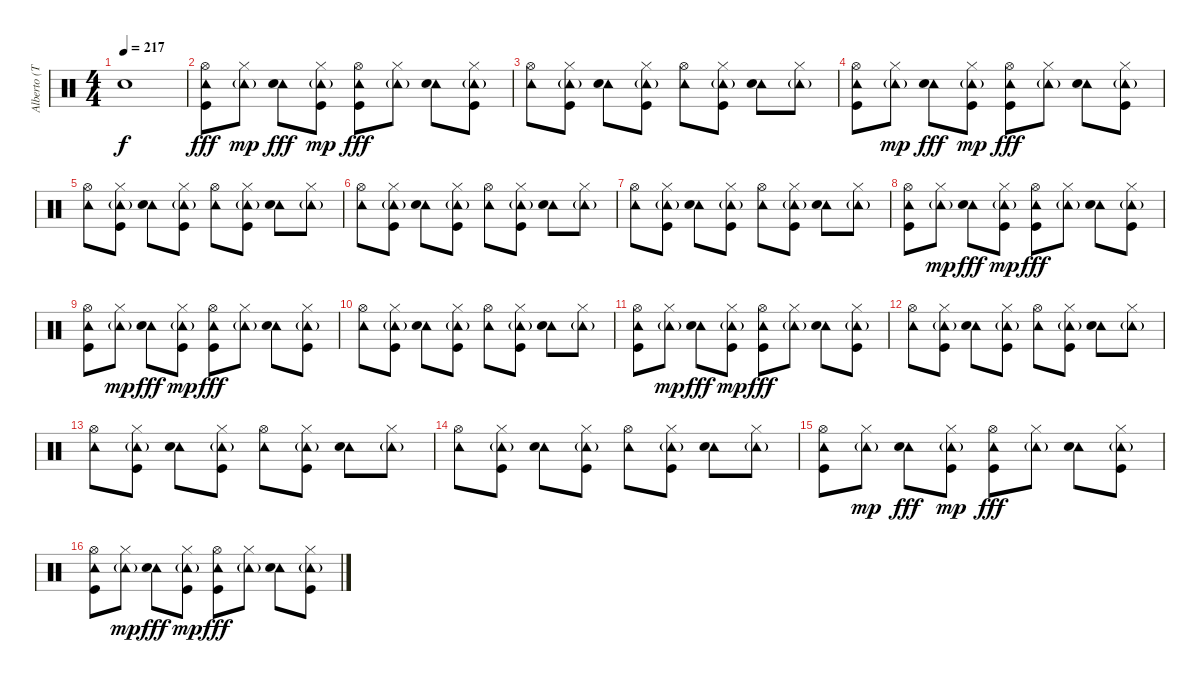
\track ("Alberto (Toshi)" "Alberto (T") {instrument percussion}
\staff {score}
\articulation defaults
\ts (4 4)
\tempo 217
\clef neutral
\ks c "Snare (hit)"{t}.1{dy f}
|
("Tambourine (hit)" "Hi-Hat (open)" "Kick (hit)").8{dy fff} ("Tambourine (hit)"{g} "Hi-Hat (closed)").8{dy mp} ("Tambourine (hit)" "Electric Snare (hit)").8{dy fff} ("Tambourine (hit)"{g} "Hi-Hat (closed)" "Kick (hit)").8{dy mp} ("Tambourine (hit)" "Hi-Hat (open)" "Kick (hit)").8{dy fff} ("Tambourine (hit)"{g} "Hi-Hat (closed)").8 ("Tambourine (hit)" "Electric Snare (hit)").8 ("Tambourine (hit)"{g} "Hi-Hat (closed)" "Kick (hit)").8 |
("Tambourine (hit)" "Hi-Hat (open)").8 ("Tambourine (hit)"{g} "Hi-Hat (closed)" "Kick (hit)").8 ("Tambourine (hit)" "Electric Snare (hit)").8 ("Tambourine (hit)"{g} "Hi-Hat (closed)" "Kick (hit)").8 ("Tambourine (hit)" "Hi-Hat (open)").8 ("Tambourine (hit)"{g} "Hi-Hat (closed)" "Kick (hit)").8 ("Tambourine (hit)" "Electric Snare (hit)").8 ("Tambourine (hit)"{g} "Hi-Hat (closed)").8 |
("Tambourine (hit)" "Hi-Hat (open)" "Kick (hit)").8 ("Tambourine (hit)"{g} "Hi-Hat (closed)").8{dy mp} ("Tambourine (hit)" "Electric Snare (hit)").8{dy fff} ("Tambourine (hit)"{g} "Hi-Hat (closed)" "Kick (hit)").8{dy mp} ("Tambourine (hit)" "Hi-Hat (open)" "Kick (hit)").8{dy fff} ("Tambourine (hit)"{g} "Hi-Hat (closed)").8 ("Tambourine (hit)" "Electric Snare (hit)").8 ("Tambourine (hit)"{g} "Hi-Hat (closed)" "Kick (hit)").8 |
("Tambourine (hit)" "Hi-Hat (open)").8 ("Tambourine (hit)"{g} "Hi-Hat (closed)" "Kick (hit)").8 ("Tambourine (hit)" "Electric Snare (hit)").8 ("Tambourine (hit)"{g} "Hi-Hat (closed)" "Kick (hit)").8 ("Tambourine (hit)" "Hi-Hat (open)").8 ("Tambourine (hit)"{g} "Hi-Hat (closed)" "Kick (hit)").8 ("Tambourine (hit)" "Electric Snare (hit)").8 ("Tambourine (hit)"{g} "Hi-Hat (closed)").8 |
("Tambourine (hit)" "Hi-Hat (open)").8 ("Tambourine (hit)"{g} "Hi-Hat (closed)" "Kick (hit)").8 ("Tambourine (hit)" "Electric Snare (hit)").8 ("Tambourine (hit)"{g} "Hi-Hat (closed)" "Kick (hit)").8 ("Tambourine (hit)" "Hi-Hat (open)").8 ("Tambourine (hit)"{g} "Hi-Hat (closed)" "Kick (hit)").8 ("Tambourine (hit)" "Electric Snare (hit)").8 ("Tambourine (hit)"{g} "Hi-Hat (closed)").8 |
("Tambourine (hit)" "Hi-Hat (open)").8 ("Tambourine (hit)"{g} "Hi-Hat (closed)" "Kick (hit)").8 ("Tambourine (hit)" "Electric Snare (hit)").8 ("Tambourine (hit)"{g} "Hi-Hat (closed)" "Kick (hit)").8 ("Tambourine (hit)" "Hi-Hat (open)").8 ("Tambourine (hit)"{g} "Hi-Hat (closed)" "Kick (hit)").8 ("Tambourine (hit)" "Electric Snare (hit)").8 ("Tambourine (hit)"{g} "Hi-Hat (closed)").8 |
("Tambourine (hit)" "Hi-Hat (open)" "Kick (hit)").8 ("Tambourine (hit)"{g} "Hi-Hat (closed)").8{dy mp} ("Tambourine (hit)" "Electric Snare (hit)").8{dy fff} ("Tambourine (hit)"{g} "Hi-Hat (closed)" "Kick (hit)").8{dy mp} ("Tambourine (hit)" "Hi-Hat (open)" "Kick (hit)").8{dy fff} ("Tambourine (hit)"{g} "Hi-Hat (closed)").8 ("Tambourine (hit)" "Electric Snare (hit)").8 ("Tambourine (hit)"{g} "Hi-Hat (closed)" "Kick (hit)").8 |
("Tambourine (hit)" "Hi-Hat (open)" "Kick (hit)").8 ("Tambourine (hit)"{g} "Hi-Hat (closed)").8{dy mp} ("Tambourine (hit)" "Electric Snare (hit)").8{dy fff} ("Tambourine (hit)"{g} "Hi-Hat (closed)" "Kick (hit)").8{dy mp} ("Tambourine (hit)" "Hi-Hat (open)" "Kick (hit)").8{dy fff} ("Tambourine (hit)"{g} "Hi-Hat (closed)").8 ("Tambourine (hit)" "Electric Snare (hit)").8 ("Tambourine (hit)"{g} "Hi-Hat (closed)" "Kick (hit)").8 |
("Tambourine (hit)" "Hi-Hat (open)").8 ("Tambourine (hit)"{g} "Hi-Hat (closed)" "Kick (hit)").8 ("Tambourine (hit)" "Electric Snare (hit)").8 ("Tambourine (hit)"{g} "Hi-Hat (closed)" "Kick (hit)").8 ("Tambourine (hit)" "Hi-Hat (open)").8 ("Tambourine (hit)"{g} "Hi-Hat (closed)" "Kick (hit)").8 ("Tambourine (hit)" "Electric Snare (hit)").8 ("Tambourine (hit)"{g} "Hi-Hat (closed)").8 |
("Tambourine (hit)" "Hi-Hat (open)" "Kick (hit)").8 ("Tambourine (hit)"{g} "Hi-Hat (closed)").8{dy mp} ("Tambourine (hit)" "Electric Snare (hit)").8{dy fff} ("Tambourine (hit)"{g} "Hi-Hat (closed)" "Kick (hit)").8{dy mp} ("Tambourine (hit)" "Hi-Hat (open)" "Kick (hit)").8{dy fff} ("Tambourine (hit)"{g} "Hi-Hat (closed)").8 ("Tambourine (hit)" "Electric Snare (hit)").8 ("Tambourine (hit)"{g} "Hi-Hat (closed)" "Kick (hit)").8 |
("Tambourine (hit)" "Hi-Hat (open)").8 ("Tambourine (hit)"{g} "Hi-Hat (closed)" "Kick (hit)").8 ("Tambourine (hit)" "Electric Snare (hit)").8 ("Tambourine (hit)"{g} "Hi-Hat (closed)" "Kick (hit)").8 ("Tambourine (hit)" "Hi-Hat (open)").8 ("Tambourine (hit)"{g} "Hi-Hat (closed)" "Kick (hit)").8 ("Tambourine (hit)" "Electric Snare (hit)").8 ("Tambourine (hit)"{g} "Hi-Hat (closed)").8 |
("Tambourine (hit)" "Hi-Hat (open)").8 ("Tambourine (hit)"{g} "Hi-Hat (closed)" "Kick (hit)").8 ("Tambourine (hit)" "Electric Snare (hit)").8 ("Tambourine (hit)"{g} "Hi-Hat (closed)" "Kick (hit)").8 ("Tambourine (hit)" "Hi-Hat (open)").8 ("Tambourine (hit)"{g} "Hi-Hat (closed)" "Kick (hit)").8 ("Tambourine (hit)" "Electric Snare (hit)").8 ("Tambourine (hit)"{g} "Hi-Hat (closed)").8 |
("Tambourine (hit)" "Hi-Hat (open)").8 ("Tambourine (hit)"{g} "Hi-Hat (closed)" "Kick (hit)").8 ("Tambourine (hit)" "Electric Snare (hit)").8 ("Tambourine (hit)"{g} "Hi-Hat (closed)" "Kick (hit)").8 ("Tambourine (hit)" "Hi-Hat (open)").8 ("Tambourine (hit)"{g} "Hi-Hat (closed)" "Kick (hit)").8 ("Tambourine (hit)" "Electric Snare (hit)").8 ("Tambourine (hit)"{g} "Hi-Hat (closed)").8 |
("Tambourine (hit)" "Hi-Hat (open)" "Kick (hit)").8 ("Tambourine (hit)"{g} "Hi-Hat (closed)").8{dy mp} ("Tambourine (hit)" "Electric Snare (hit)").8{dy fff} ("Tambourine (hit)"{g} "Hi-Hat (closed)" "Kick (hit)").8{dy mp} ("Tambourine (hit)" "Hi-Hat (open)" "Kick (hit)").8{dy fff} ("Tambourine (hit)"{g} "Hi-Hat (closed)").8 ("Tambourine (hit)" "Electric Snare (hit)").8 ("Tambourine (hit)"{g} "Hi-Hat (closed)" "Kick (hit)").8 |
("Tambourine (hit)" "Hi-Hat (open)" "Kick (hit)").8 ("Tambourine (hit)"{g} "Hi-Hat (closed)").8{dy mp} ("Tambourine (hit)" "Electric Snare (hit)").8{dy fff} ("Tambourine (hit)"{g} "Hi-Hat (closed)" "Kick (hit)").8{dy mp} ("Tambourine (hit)" "Hi-Hat (open)" "Kick (hit)").8{dy fff} ("Tambourine (hit)"{g} "Hi-Hat (closed)").8 ("Tambourine (hit)" "Electric Snare (hit)").8 ("Tambourine (hit)"{g} "Hi-Hat (closed)" "Kick (hit)").8
